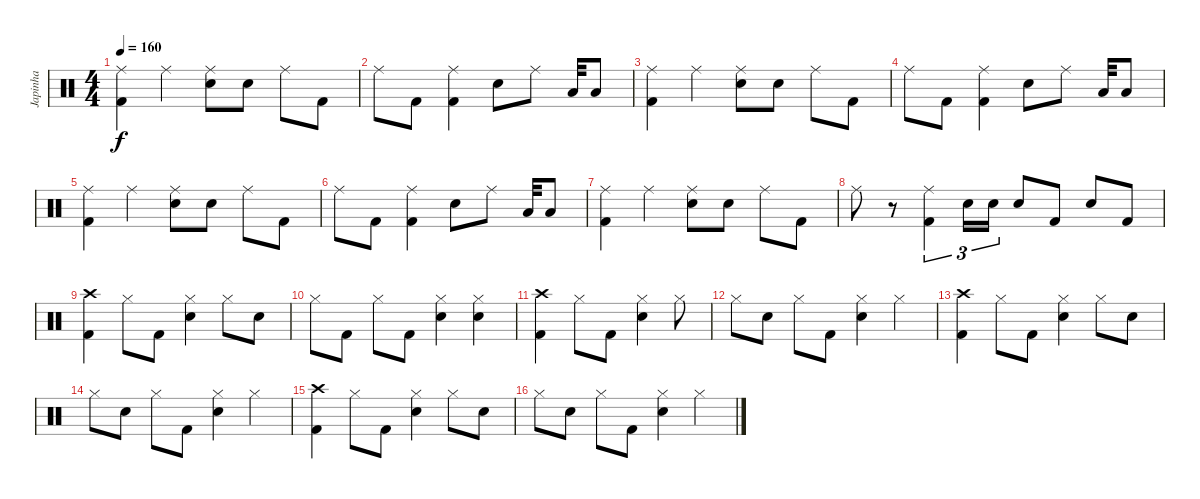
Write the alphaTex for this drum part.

\track ("Japinha" "Japinha") {instrument percussion}
\staff {score}
\articulation defaults
\ts (4 4)
\tempo 160
\clef neutral
\ks c
("Ride (middle)" "Kick (hit) 2").4{dy f} "Ride (middle)".4 ("Ride (middle)" "Snare (hit) 2").8 "Snare (hit) 2".8 "Ride (middle)".8 "Kick (hit) 2".8 |
"Ride (middle)".8 "Kick (hit) 2".8 ("Ride (middle)" "Kick (hit) 2").4 "Snare (hit) 2".8 "Ride (middle)".8 "Low Tom (hit)".32 "Low Tom (hit)".8 |
("Ride (middle)" "Kick (hit) 2").4 "Ride (middle)".4 ("Ride (middle)" "Snare (hit) 2").8 "Snare (hit) 2".8 "Ride (middle)".8 "Kick (hit) 2".8 |
"Ride (middle)".8 "Kick (hit) 2".8 ("Ride (middle)" "Kick (hit) 2").4 "Snare (hit) 2".8 "Ride (middle)".8 "Low Tom (hit)".32 "Low Tom (hit)".8 |
("Ride (middle)" "Kick (hit) 2").4 "Ride (middle)".4 ("Ride (middle)" "Snare (hit) 2").8 "Snare (hit) 2".8 "Ride (middle)".8 "Kick (hit) 2".8 |
"Ride (middle)".8 "Kick (hit) 2".8 ("Ride (middle)" "Kick (hit) 2").4 "Snare (hit) 2".8 "Ride (middle)".8 "Low Tom (hit)".32 "Low Tom (hit)".8 |
("Ride (middle)" "Kick (hit) 2").4 "Ride (middle)".4 ("Ride (middle)" "Snare (hit) 2").8 "Snare (hit) 2".8 "Ride (middle)".8 "Kick (hit) 2".8 |
"Ride (middle)".8 r.8 ("Ride (middle)" "Kick (hit) 2").4{tu (3 2)} "Snare (hit) 2".16{tu (3 2)} "Snare (hit) 2".16{tu (3 2)} "Snare (hit) 2".8 "Kick (hit) 2".8 "Snare (hit) 2".8 "Kick (hit) 2".8 |
("Crash high (hit)" "Kick (hit) 2").4 "Hi-Hat (closed)".8 "Kick (hit) 2".8 ("Hi-Hat (closed)" "Snare (hit) 2").4 "Hi-Hat (closed)".8 "Snare (hit) 2".8 |
"Hi-Hat (closed)".8 "Kick (hit) 2".8 "Hi-Hat (closed)".8 "Kick (hit) 2".8 ("Hi-Hat (closed)" "Snare (hit) 2").4 ("Hi-Hat (closed)" "Snare (hit) 2").4 |
("Crash high (hit)" "Kick (hit) 2").4 "Hi-Hat (closed)".8 "Kick (hit) 2".8 ("Hi-Hat (closed)" "Snare (hit) 2").4 "Hi-Hat (closed)".8 |
"Hi-Hat (closed)".8 "Snare (hit) 2".8 "Hi-Hat (closed)".8 "Kick (hit) 2".8 ("Hi-Hat (closed)" "Snare (hit) 2").4 "Hi-Hat (closed)".4 |
("Crash high (hit)" "Kick (hit) 2").4 "Hi-Hat (closed)".8 "Kick (hit) 2".8 ("Hi-Hat (closed)" "Snare (hit) 2").4 "Hi-Hat (closed)".8 "Snare (hit) 2".8 |
"Hi-Hat (closed)".8 "Snare (hit) 2".8 "Hi-Hat (closed)".8 "Kick (hit) 2".8 ("Hi-Hat (closed)" "Snare (hit) 2").4 "Hi-Hat (closed)".4 |
("Crash high (hit)" "Kick (hit) 2").4 "Hi-Hat (closed)".8 "Kick (hit) 2".8 ("Hi-Hat (closed)" "Snare (hit) 2").4 "Hi-Hat (closed)".8 "Snare (hit) 2".8 |
"Hi-Hat (closed)".8 "Snare (hit) 2".8 "Hi-Hat (closed)".8 "Kick (hit) 2".8 ("Hi-Hat (closed)" "Snare (hit) 2").4 "Hi-Hat (closed)".4
